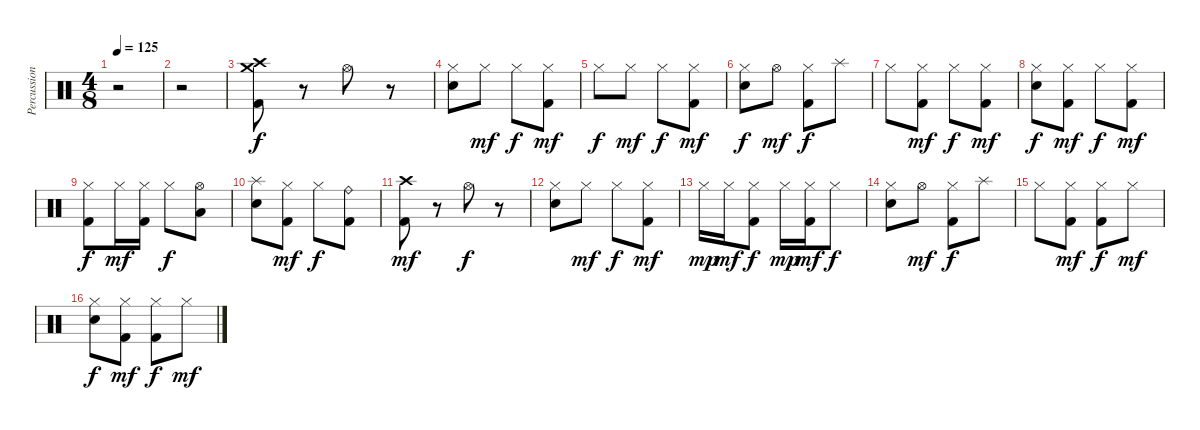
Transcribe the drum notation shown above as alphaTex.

\track ("Percussion" "Percussion") {instrument percussion}
\staff {score}
\articulation defaults
\ts (4 8)
\tempo 125
\clef neutral
\ks c
r.2{dy f} |
r.2 |
("Crash medium (hit)" "Crash high (hit)" "Kick (hit) 2").8 r.8 "Hi-Hat (open)".8 r.8 |
("Hi-Hat (closed)" "Snare (hit) 2").8 "Hi-Hat (closed)".8{dy mf} "Hi-Hat (closed)".8{dy f} ("Hi-Hat (closed)" "Kick (hit) 2").8{dy mf} |
"Hi-Hat (closed)".8{dy f} "Hi-Hat (closed)".8{dy mf} "Hi-Hat (closed)".8{dy f} ("Hi-Hat (closed)" "Kick (hit) 2").8{dy mf} |
("Hi-Hat (closed)" "Snare (hit) 2").8{dy f} "Hi-Hat (open)".8{dy mf} ("Hi-Hat (closed)" "Kick (hit) 2").8{dy f} "Splash (hit)".8 |
"Hi-Hat (closed)".8 ("Hi-Hat (closed)" "Kick (hit) 2").8{dy mf} "Hi-Hat (closed)".8{dy f} ("Hi-Hat (closed)" "Kick (hit) 2").8{dy mf} |
("Hi-Hat (closed)" "Snare (hit) 2").8{dy f} ("Hi-Hat (closed)" "Kick (hit) 2").8{dy mf} "Hi-Hat (closed)".8{dy f} ("Hi-Hat (closed)" "Kick (hit) 2").8{dy mf} |
("Hi-Hat (closed)" "Kick (hit) 2").8{dy f} "Hi-Hat (closed)".16{dy mf} ("Hi-Hat (closed)" "Kick (hit) 2").16 "Hi-Hat (closed)".8{dy f} ("Hi-Hat (open)" "Low Tom (hit)").8 |
("Splash (hit)" "Snare (hit) 2").8 ("Hi-Hat (closed)" "Kick (hit) 2").8{dy mf} "Hi-Hat (closed)".8{dy f} ("Ride (bell)" "Kick (hit) 2").8 |
("Crash high (hit)" "Kick (hit) 2").8{dy mf} r.8 "Hi-Hat (open)".8{dy f} r.8 |
("Hi-Hat (closed)" "Snare (hit) 2").8 "Hi-Hat (closed)".8{dy mf} "Hi-Hat (closed)".8{dy f} ("Hi-Hat (closed)" "Kick (hit) 2").8{dy mf} |
"Hi-Hat (closed)".16{dy mp} "Hi-Hat (closed)".16{dy mf} ("Hi-Hat (closed)" "Kick (hit) 2").8{dy f} "Hi-Hat (closed)".16{dy mp} ("Hi-Hat (closed)" "Kick (hit) 2").16{dy mf} "Hi-Hat (closed)".8{dy f} |
("Hi-Hat (closed)" "Snare (hit) 2").8 "Hi-Hat (open)".8{dy mf} ("Hi-Hat (closed)" "Kick (hit) 2").8{dy f} "Splash (hit)".8 |
"Hi-Hat (closed)".8 ("Hi-Hat (closed)" "Kick (hit) 2").8{dy mf} ("Hi-Hat (closed)" "Kick (hit) 2").8{dy f} "Hi-Hat (closed)".8{dy mf} |
("Hi-Hat (closed)" "Snare (hit) 2").8{dy f} ("Hi-Hat (closed)" "Kick (hit) 2").8{dy mf} ("Hi-Hat (closed)" "Kick (hit) 2").8{dy f} "Hi-Hat (closed)".8{dy mf}
